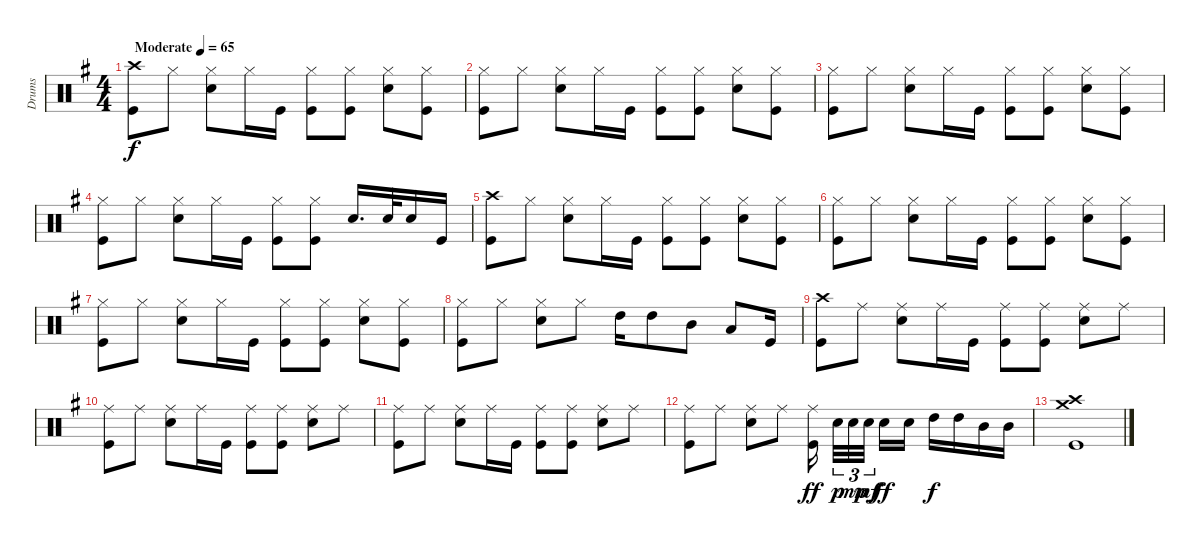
\track ("Drums" "Drums") {instrument percussion}
\staff {score}
\articulation defaults
\ts (4 4)
\tempo (65 "Moderate")
\clef neutral
\ks eminor
("Kick (hit)" "Crash high (hit)").8{dy f} "Hi-Hat (closed)".8 ("Hi-Hat (closed)" "Snare (hit) 2").8 "Hi-Hat (closed)".16 "Kick (hit)".16 ("Hi-Hat (closed)" "Kick (hit)").8 ("Hi-Hat (closed)" "Kick (hit)").8 ("Hi-Hat (closed)" "Snare (hit) 2").8 ("Hi-Hat (closed)" "Kick (hit)").8 |
("Hi-Hat (closed)" "Kick (hit)").8 "Hi-Hat (closed)".8 ("Hi-Hat (closed)" "Snare (hit) 2").8 "Hi-Hat (closed)".16 "Kick (hit)".16 ("Hi-Hat (closed)" "Kick (hit)").8 ("Hi-Hat (closed)" "Kick (hit)").8 ("Hi-Hat (closed)" "Snare (hit) 2").8 ("Hi-Hat (closed)" "Kick (hit)").8 |
("Hi-Hat (closed)" "Kick (hit)").8 "Hi-Hat (closed)".8 ("Hi-Hat (closed)" "Snare (hit) 2").8 "Hi-Hat (closed)".16 "Kick (hit)".16 ("Hi-Hat (closed)" "Kick (hit)").8 ("Hi-Hat (closed)" "Kick (hit)").8 ("Hi-Hat (closed)" "Snare (hit) 2").8 ("Hi-Hat (closed)" "Kick (hit)").8 |
("Hi-Hat (closed)" "Kick (hit)").8 "Hi-Hat (closed)".8 ("Hi-Hat (closed)" "Snare (hit) 2").8 "Hi-Hat (closed)".16 "Kick (hit)".16 ("Hi-Hat (closed)" "Kick (hit)").8 ("Hi-Hat (closed)" "Kick (hit)").8 "Snare (hit) 2".16{d} "Snare (hit) 2".32 "Snare (hit) 2".16 "Kick (hit)".16 |
("Kick (hit)" "Crash high (hit)").8 "Hi-Hat (closed)".8 ("Hi-Hat (closed)" "Snare (hit) 2").8 "Hi-Hat (closed)".16 "Kick (hit)".16 ("Hi-Hat (closed)" "Kick (hit)").8 ("Hi-Hat (closed)" "Kick (hit)").8 ("Hi-Hat (closed)" "Snare (hit) 2").8 ("Hi-Hat (closed)" "Kick (hit)").8 |
("Hi-Hat (closed)" "Kick (hit)").8 "Hi-Hat (closed)".8 ("Hi-Hat (closed)" "Snare (hit) 2").8 "Hi-Hat (closed)".16 "Kick (hit)".16 ("Hi-Hat (closed)" "Kick (hit)").8 ("Hi-Hat (closed)" "Kick (hit)").8 ("Hi-Hat (closed)" "Snare (hit) 2").8 ("Hi-Hat (closed)" "Kick (hit)").8 |
("Hi-Hat (closed)" "Kick (hit)").8 "Hi-Hat (closed)".8 ("Hi-Hat (closed)" "Snare (hit) 2").8 "Hi-Hat (closed)".16 "Kick (hit)".16 ("Hi-Hat (closed)" "Kick (hit)").8 ("Hi-Hat (closed)" "Kick (hit)").8 ("Hi-Hat (closed)" "Snare (hit) 2").8 ("Hi-Hat (closed)" "Kick (hit)").8 |
("Hi-Hat (closed)" "Kick (hit)").8 "Hi-Hat (closed)".8 ("Hi-Hat (closed)" "Snare (hit) 2").8 "Hi-Hat (closed)".8 "High Tom (hit)".16 "High Tom (hit)".8 "Mid Tom (hit)".8 "Low Tom (hit)".8 "Kick (hit)".16 |
("Crash high (hit)" "Kick (hit)").8 "Ride (middle)".8 ("Ride (middle)" "Snare (hit) 2").8 "Ride (middle)".16 "Kick (hit)".16 ("Ride (middle)" "Kick (hit)").8 ("Ride (middle)" "Kick (hit)").8 ("Ride (middle)" "Snare (hit) 2").8 "Ride (middle)".8 |
("Ride (middle)" "Kick (hit)").8 "Ride (middle)".8 ("Ride (middle)" "Snare (hit) 2").8 "Ride (middle)".16 "Kick (hit)".16 ("Ride (middle)" "Kick (hit)").8 ("Ride (middle)" "Kick (hit)").8 ("Ride (middle)" "Snare (hit) 2").8 "Ride (middle)".8 |
("Ride (middle)" "Kick (hit)").8 "Ride (middle)".8 ("Ride (middle)" "Snare (hit) 2").8 "Ride (middle)".16 "Kick (hit)".16 ("Ride (middle)" "Kick (hit)").8 ("Ride (middle)" "Kick (hit)").8 ("Ride (middle)" "Snare (hit) 2").8 "Ride (middle)".8 |
("Ride (middle)" "Kick (hit)").8 "Ride (middle)".8 ("Ride (middle)" "Snare (hit) 2").8 "Ride (middle)".8 ("Kick (hit)" "Ride (middle)").16{dy ff beam splitsecondary} "Snare (hit) 2".32{tu (3 2) dy p} "Snare (hit) 2".32{tu (3 2) dy mp} "Snare (hit) 2".32{tu (3 2) dy mf beam splitsecondary} "Snare (hit) 2".16{dy ff} "Snare (hit) 2".16 "High Tom (hit)".16{dy f} "High Tom (hit)".16 "Mid Tom (hit)".16 "Mid Tom (hit)".16 |
("Kick (hit)" "Crash high (hit)" "Crash medium (hit)").1
